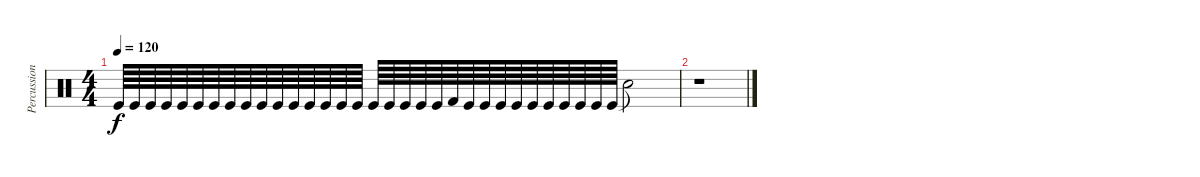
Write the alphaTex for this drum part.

\track ("Percussion" "Percussion") {instrument percussion}
\staff {score}
\articulation defaults
\ts (4 4)
\tempo 120
\clef neutral
\ks c "Kick (hit)".64{dy f} "Kick (hit)".64 "Kick (hit)".64 "Kick (hit)".64 "Kick (hit)".64 "Kick (hit)".64 "Kick (hit)".64 "Kick (hit)".64 "Kick (hit)".64 "Kick (hit)".64 "Kick (hit)".64 "Kick (hit)".64 "Kick (hit)".64 "Kick (hit)".64 "Kick (hit)".64 "Kick (hit)".64 "Kick (hit)".64 "Kick (hit)".64 "Kick (hit)".64 "Kick (hit)".64 "Kick (hit)".64 "Kick (hit) 2".64 "Kick (hit)".64 "Kick (hit)".64 "Kick (hit)".64 "Kick (hit)".64 "Kick (hit)".64 "Kick (hit)".64 "Kick (hit)".64 "Kick (hit)".64 "Kick (hit)".64 "Kick (hit)".64 "Snare (hit)"{t}.2
|
r.1
